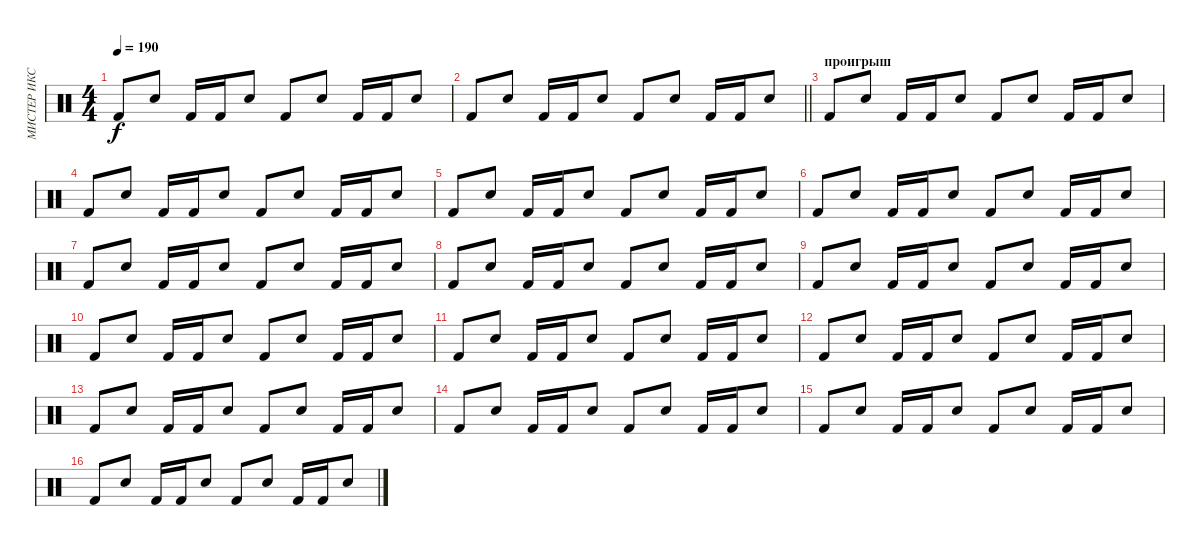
\track ("МИСТЕР ИКС" "МИСТЕР ИКС") {instrument percussion}
\staff {score}
\articulation defaults
\ts (4 4)
\tempo 190
\clef neutral
\ks c "Kick (hit) 2".8{dy f} "Electric Snare (hit)".8 "Kick (hit) 2".16 "Kick (hit) 2".16 "Electric Snare (hit)".8 "Kick (hit) 2".8 "Electric Snare (hit)".8 "Kick (hit) 2".16 "Kick (hit) 2".16 "Electric Snare (hit)".8
|
\barLineRight lightlight "Kick (hit) 2".8 "Electric Snare (hit)".8 "Kick (hit) 2".16 "Kick (hit) 2".16 "Electric Snare (hit)".8 "Kick (hit) 2".8 "Electric Snare (hit)".8 "Kick (hit) 2".16 "Kick (hit) 2".16 "Electric Snare (hit)".8
|
\section ("" "проигрыш")
"Kick (hit) 2".8 "Electric Snare (hit)".8 "Kick (hit) 2".16 "Kick (hit) 2".16 "Electric Snare (hit)".8 "Kick (hit) 2".8 "Electric Snare (hit)".8 "Kick (hit) 2".16 "Kick (hit) 2".16 "Electric Snare (hit)".8 |
"Kick (hit) 2".8 "Electric Snare (hit)".8 "Kick (hit) 2".16 "Kick (hit) 2".16 "Electric Snare (hit)".8 "Kick (hit) 2".8 "Electric Snare (hit)".8 "Kick (hit) 2".16 "Kick (hit) 2".16 "Electric Snare (hit)".8 |
"Kick (hit) 2".8 "Electric Snare (hit)".8 "Kick (hit) 2".16 "Kick (hit) 2".16 "Electric Snare (hit)".8 "Kick (hit) 2".8 "Electric Snare (hit)".8 "Kick (hit) 2".16 "Kick (hit) 2".16 "Electric Snare (hit)".8 |
"Kick (hit) 2".8 "Electric Snare (hit)".8 "Kick (hit) 2".16 "Kick (hit) 2".16 "Electric Snare (hit)".8 "Kick (hit) 2".8 "Electric Snare (hit)".8 "Kick (hit) 2".16 "Kick (hit) 2".16 "Electric Snare (hit)".8 |
"Kick (hit) 2".8 "Electric Snare (hit)".8 "Kick (hit) 2".16 "Kick (hit) 2".16 "Electric Snare (hit)".8 "Kick (hit) 2".8 "Electric Snare (hit)".8 "Kick (hit) 2".16 "Kick (hit) 2".16 "Electric Snare (hit)".8 |
"Kick (hit) 2".8 "Electric Snare (hit)".8 "Kick (hit) 2".16 "Kick (hit) 2".16 "Electric Snare (hit)".8 "Kick (hit) 2".8 "Electric Snare (hit)".8 "Kick (hit) 2".16 "Kick (hit) 2".16 "Electric Snare (hit)".8 |
"Kick (hit) 2".8 "Electric Snare (hit)".8 "Kick (hit) 2".16 "Kick (hit) 2".16 "Electric Snare (hit)".8 "Kick (hit) 2".8 "Electric Snare (hit)".8 "Kick (hit) 2".16 "Kick (hit) 2".16 "Electric Snare (hit)".8 |
"Kick (hit) 2".8 "Electric Snare (hit)".8 "Kick (hit) 2".16 "Kick (hit) 2".16 "Electric Snare (hit)".8 "Kick (hit) 2".8 "Electric Snare (hit)".8 "Kick (hit) 2".16 "Kick (hit) 2".16 "Electric Snare (hit)".8 |
"Kick (hit) 2".8 "Electric Snare (hit)".8 "Kick (hit) 2".16 "Kick (hit) 2".16 "Electric Snare (hit)".8 "Kick (hit) 2".8 "Electric Snare (hit)".8 "Kick (hit) 2".16 "Kick (hit) 2".16 "Electric Snare (hit)".8 |
"Kick (hit) 2".8 "Electric Snare (hit)".8 "Kick (hit) 2".16 "Kick (hit) 2".16 "Electric Snare (hit)".8 "Kick (hit) 2".8 "Electric Snare (hit)".8 "Kick (hit) 2".16 "Kick (hit) 2".16 "Electric Snare (hit)".8 |
"Kick (hit) 2".8 "Electric Snare (hit)".8 "Kick (hit) 2".16 "Kick (hit) 2".16 "Electric Snare (hit)".8 "Kick (hit) 2".8 "Electric Snare (hit)".8 "Kick (hit) 2".16 "Kick (hit) 2".16 "Electric Snare (hit)".8 |
"Kick (hit) 2".8 "Electric Snare (hit)".8 "Kick (hit) 2".16 "Kick (hit) 2".16 "Electric Snare (hit)".8 "Kick (hit) 2".8 "Electric Snare (hit)".8 "Kick (hit) 2".16 "Kick (hit) 2".16 "Electric Snare (hit)".8 |
"Kick (hit) 2".8 "Electric Snare (hit)".8 "Kick (hit) 2".16 "Kick (hit) 2".16 "Electric Snare (hit)".8 "Kick (hit) 2".8 "Electric Snare (hit)".8 "Kick (hit) 2".16 "Kick (hit) 2".16 "Electric Snare (hit)".8 |
"Kick (hit) 2".8 "Electric Snare (hit)".8 "Kick (hit) 2".16 "Kick (hit) 2".16 "Electric Snare (hit)".8 "Kick (hit) 2".8 "Electric Snare (hit)".8 "Kick (hit) 2".16 "Kick (hit) 2".16 "Electric Snare (hit)".8
